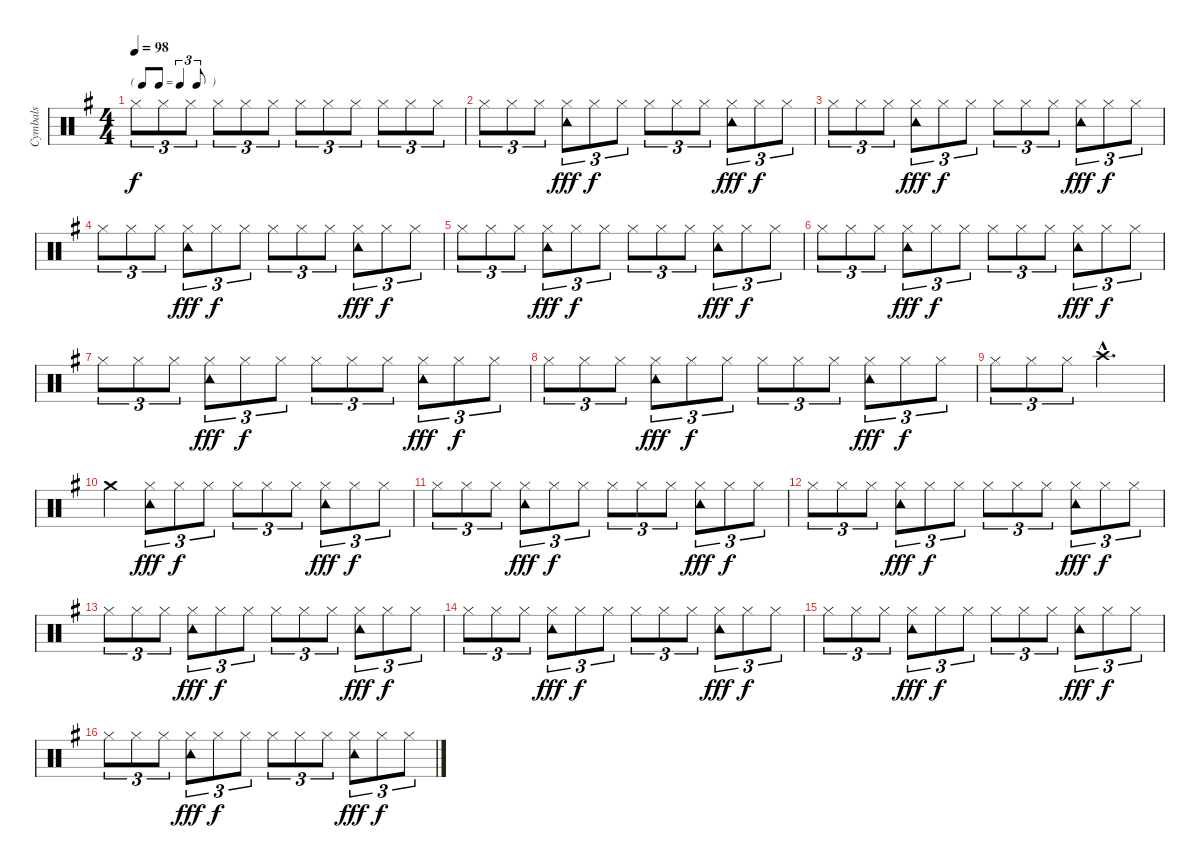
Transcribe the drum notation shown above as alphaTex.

\track ("Cymbals" "Cymbals") {instrument percussion}
\staff {score}
\articulation defaults
\ts (4 4)
\tf triplet8th
\tempo 98
\clef neutral
\ks g "Hi-Hat (closed)".8{tu (3 2) dy f} "Hi-Hat (closed)".8{tu (3 2)} "Hi-Hat (closed)".8{tu (3 2)} "Hi-Hat (closed)".8{tu (3 2)} "Hi-Hat (closed)".8{tu (3 2)} "Hi-Hat (closed)".8{tu (3 2)} "Hi-Hat (closed)".8{tu (3 2)} "Hi-Hat (closed)".8{tu (3 2)} "Hi-Hat (closed)".8{tu (3 2)} "Hi-Hat (closed)".8{tu (3 2)} "Hi-Hat (closed)".8{tu (3 2)} "Hi-Hat (closed)".8{tu (3 2)}
|
"Hi-Hat (closed)".8{tu (3 2)} "Hi-Hat (closed)".8{tu (3 2)} "Hi-Hat (closed)".8{tu (3 2)} ("Hi-Hat (closed)" "Tambourine (hit)").8{tu (3 2) dy fff} "Hi-Hat (closed)".8{tu (3 2) dy f} "Hi-Hat (closed)".8{tu (3 2)} "Hi-Hat (closed)".8{tu (3 2)} "Hi-Hat (closed)".8{tu (3 2)} "Hi-Hat (closed)".8{tu (3 2)} ("Hi-Hat (closed)" "Tambourine (hit)").8{tu (3 2) dy fff} "Hi-Hat (closed)".8{tu (3 2) dy f} "Hi-Hat (closed)".8{tu (3 2)} |
"Hi-Hat (closed)".8{tu (3 2)} "Hi-Hat (closed)".8{tu (3 2)} "Hi-Hat (closed)".8{tu (3 2)} ("Hi-Hat (closed)" "Tambourine (hit)").8{tu (3 2) dy fff} "Hi-Hat (closed)".8{tu (3 2) dy f} "Hi-Hat (closed)".8{tu (3 2)} "Hi-Hat (closed)".8{tu (3 2)} "Hi-Hat (closed)".8{tu (3 2)} "Hi-Hat (closed)".8{tu (3 2)} ("Hi-Hat (closed)" "Tambourine (hit)").8{tu (3 2) dy fff} "Hi-Hat (closed)".8{tu (3 2) dy f} "Hi-Hat (closed)".8{tu (3 2)} |
"Hi-Hat (closed)".8{tu (3 2)} "Hi-Hat (closed)".8{tu (3 2)} "Hi-Hat (closed)".8{tu (3 2)} ("Hi-Hat (closed)" "Tambourine (hit)").8{tu (3 2) dy fff} "Hi-Hat (closed)".8{tu (3 2) dy f} "Hi-Hat (closed)".8{tu (3 2)} "Hi-Hat (closed)".8{tu (3 2)} "Hi-Hat (closed)".8{tu (3 2)} "Hi-Hat (closed)".8{tu (3 2)} ("Hi-Hat (closed)" "Tambourine (hit)").8{tu (3 2) dy fff} "Hi-Hat (closed)".8{tu (3 2) dy f} "Hi-Hat (closed)".8{tu (3 2)} |
"Hi-Hat (closed)".8{tu (3 2)} "Hi-Hat (closed)".8{tu (3 2)} "Hi-Hat (closed)".8{tu (3 2)} ("Hi-Hat (closed)" "Tambourine (hit)").8{tu (3 2) dy fff} "Hi-Hat (closed)".8{tu (3 2) dy f} "Hi-Hat (closed)".8{tu (3 2)} "Hi-Hat (closed)".8{tu (3 2)} "Hi-Hat (closed)".8{tu (3 2)} "Hi-Hat (closed)".8{tu (3 2)} ("Hi-Hat (closed)" "Tambourine (hit)").8{tu (3 2) dy fff} "Hi-Hat (closed)".8{tu (3 2) dy f} "Hi-Hat (closed)".8{tu (3 2)} |
"Hi-Hat (closed)".8{tu (3 2)} "Hi-Hat (closed)".8{tu (3 2)} "Hi-Hat (closed)".8{tu (3 2)} ("Hi-Hat (closed)" "Tambourine (hit)").8{tu (3 2) dy fff} "Hi-Hat (closed)".8{tu (3 2) dy f} "Hi-Hat (closed)".8{tu (3 2)} "Hi-Hat (closed)".8{tu (3 2)} "Hi-Hat (closed)".8{tu (3 2)} "Hi-Hat (closed)".8{tu (3 2)} ("Hi-Hat (closed)" "Tambourine (hit)").8{tu (3 2) dy fff} "Hi-Hat (closed)".8{tu (3 2) dy f} "Hi-Hat (closed)".8{tu (3 2)} |
"Hi-Hat (closed)".8{tu (3 2)} "Hi-Hat (closed)".8{tu (3 2)} "Hi-Hat (closed)".8{tu (3 2)} ("Hi-Hat (closed)" "Tambourine (hit)").8{tu (3 2) dy fff} "Hi-Hat (closed)".8{tu (3 2) dy f} "Hi-Hat (closed)".8{tu (3 2)} "Hi-Hat (closed)".8{tu (3 2)} "Hi-Hat (closed)".8{tu (3 2)} "Hi-Hat (closed)".8{tu (3 2)} ("Hi-Hat (closed)" "Tambourine (hit)").8{tu (3 2) dy fff} "Hi-Hat (closed)".8{tu (3 2) dy f} "Hi-Hat (closed)".8{tu (3 2)} |
"Hi-Hat (closed)".8{tu (3 2)} "Hi-Hat (closed)".8{tu (3 2)} "Hi-Hat (closed)".8{tu (3 2)} ("Hi-Hat (closed)" "Tambourine (hit)").8{tu (3 2) dy fff} "Hi-Hat (closed)".8{tu (3 2) dy f} "Hi-Hat (closed)".8{tu (3 2)} "Hi-Hat (closed)".8{tu (3 2)} "Hi-Hat (closed)".8{tu (3 2)} "Hi-Hat (closed)".8{tu (3 2)} ("Hi-Hat (closed)" "Tambourine (hit)").8{tu (3 2) dy fff} "Hi-Hat (closed)".8{tu (3 2) dy f} "Hi-Hat (closed)".8{tu (3 2)} |
"Hi-Hat (closed)".8{tu (3 2)} "Hi-Hat (closed)".8{tu (3 2)} "Hi-Hat (closed)".8{tu (3 2)} "Crash high (hit)"{hac}.2{d} |
"Crash medium (hit)".4 ("Hi-Hat (closed)" "Tambourine (hit)").8{tu (3 2) dy fff} "Hi-Hat (closed)".8{tu (3 2) dy f} "Hi-Hat (closed)".8{tu (3 2)} "Hi-Hat (closed)".8{tu (3 2)} "Hi-Hat (closed)".8{tu (3 2)} "Hi-Hat (closed)".8{tu (3 2)} ("Hi-Hat (closed)" "Tambourine (hit)").8{tu (3 2) dy fff} "Hi-Hat (closed)".8{tu (3 2) dy f} "Hi-Hat (closed)".8{tu (3 2)} |
"Hi-Hat (closed)".8{tu (3 2)} "Hi-Hat (closed)".8{tu (3 2)} "Hi-Hat (closed)".8{tu (3 2)} ("Hi-Hat (closed)" "Tambourine (hit)").8{tu (3 2) dy fff} "Hi-Hat (closed)".8{tu (3 2) dy f} "Hi-Hat (closed)".8{tu (3 2)} "Hi-Hat (closed)".8{tu (3 2)} "Hi-Hat (closed)".8{tu (3 2)} "Hi-Hat (closed)".8{tu (3 2)} ("Hi-Hat (closed)" "Tambourine (hit)").8{tu (3 2) dy fff} "Hi-Hat (closed)".8{tu (3 2) dy f} "Hi-Hat (closed)".8{tu (3 2)} |
"Hi-Hat (closed)".8{tu (3 2)} "Hi-Hat (closed)".8{tu (3 2)} "Hi-Hat (closed)".8{tu (3 2)} ("Hi-Hat (closed)" "Tambourine (hit)").8{tu (3 2) dy fff} "Hi-Hat (closed)".8{tu (3 2) dy f} "Hi-Hat (closed)".8{tu (3 2)} "Hi-Hat (closed)".8{tu (3 2)} "Hi-Hat (closed)".8{tu (3 2)} "Hi-Hat (closed)".8{tu (3 2)} ("Hi-Hat (closed)" "Tambourine (hit)").8{tu (3 2) dy fff} "Hi-Hat (closed)".8{tu (3 2) dy f} "Hi-Hat (closed)".8{tu (3 2)} |
"Hi-Hat (closed)".8{tu (3 2)} "Hi-Hat (closed)".8{tu (3 2)} "Hi-Hat (closed)".8{tu (3 2)} ("Hi-Hat (closed)" "Tambourine (hit)").8{tu (3 2) dy fff} "Hi-Hat (closed)".8{tu (3 2) dy f} "Hi-Hat (closed)".8{tu (3 2)} "Hi-Hat (closed)".8{tu (3 2)} "Hi-Hat (closed)".8{tu (3 2)} "Hi-Hat (closed)".8{tu (3 2)} ("Hi-Hat (closed)" "Tambourine (hit)").8{tu (3 2) dy fff} "Hi-Hat (closed)".8{tu (3 2) dy f} "Hi-Hat (closed)".8{tu (3 2)} |
"Hi-Hat (closed)".8{tu (3 2)} "Hi-Hat (closed)".8{tu (3 2)} "Hi-Hat (closed)".8{tu (3 2)} ("Hi-Hat (closed)" "Tambourine (hit)").8{tu (3 2) dy fff} "Hi-Hat (closed)".8{tu (3 2) dy f} "Hi-Hat (closed)".8{tu (3 2)} "Hi-Hat (closed)".8{tu (3 2)} "Hi-Hat (closed)".8{tu (3 2)} "Hi-Hat (closed)".8{tu (3 2)} ("Hi-Hat (closed)" "Tambourine (hit)").8{tu (3 2) dy fff} "Hi-Hat (closed)".8{tu (3 2) dy f} "Hi-Hat (closed)".8{tu (3 2)} |
"Hi-Hat (closed)".8{tu (3 2)} "Hi-Hat (closed)".8{tu (3 2)} "Hi-Hat (closed)".8{tu (3 2)} ("Hi-Hat (closed)" "Tambourine (hit)").8{tu (3 2) dy fff} "Hi-Hat (closed)".8{tu (3 2) dy f} "Hi-Hat (closed)".8{tu (3 2)} "Hi-Hat (closed)".8{tu (3 2)} "Hi-Hat (closed)".8{tu (3 2)} "Hi-Hat (closed)".8{tu (3 2)} ("Hi-Hat (closed)" "Tambourine (hit)").8{tu (3 2) dy fff} "Hi-Hat (closed)".8{tu (3 2) dy f} "Hi-Hat (closed)".8{tu (3 2)} |
"Hi-Hat (closed)".8{tu (3 2)} "Hi-Hat (closed)".8{tu (3 2)} "Hi-Hat (closed)".8{tu (3 2)} ("Hi-Hat (closed)" "Tambourine (hit)").8{tu (3 2) dy fff} "Hi-Hat (closed)".8{tu (3 2) dy f} "Hi-Hat (closed)".8{tu (3 2)} "Hi-Hat (closed)".8{tu (3 2)} "Hi-Hat (closed)".8{tu (3 2)} "Hi-Hat (closed)".8{tu (3 2)} ("Hi-Hat (closed)" "Tambourine (hit)").8{tu (3 2) dy fff} "Hi-Hat (closed)".8{tu (3 2) dy f} "Hi-Hat (closed)".8{tu (3 2)}
